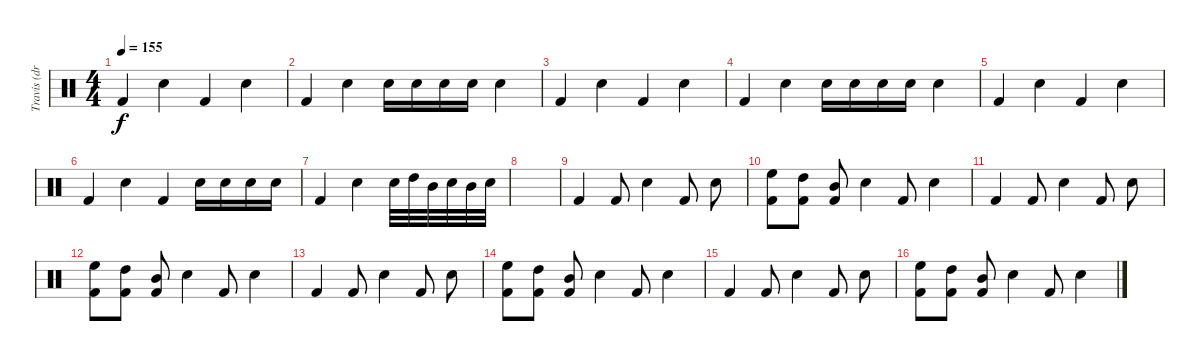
\track ("Travis (drums)" "Travis (dr") {instrument percussion}
\staff {score}
\articulation defaults
\ts (4 4)
\tempo 155
\clef neutral
\ks c "Kick (hit) 2".4{dy f} "Snare (hit) 2".4 "Kick (hit) 2".4 "Snare (hit) 2".4
|
"Kick (hit) 2".4 "Snare (hit) 2".4 "Snare (hit) 2".16 "Snare (hit) 2".16 "Snare (hit) 2".16 "Snare (hit) 2".16 "Snare (hit) 2".4 |
"Kick (hit) 2".4 "Snare (hit) 2".4 "Kick (hit) 2".4 "Snare (hit) 2".4 |
"Kick (hit) 2".4 "Snare (hit) 2".4 "Snare (hit) 2".16 "Snare (hit) 2".16 "Snare (hit) 2".16 "Snare (hit) 2".16 "Snare (hit) 2".4 |
"Kick (hit) 2".4 "Snare (hit) 2".4 "Kick (hit) 2".4 "Snare (hit) 2".4 |
"Kick (hit) 2".4 "Snare (hit) 2".4 "Kick (hit) 2".4 "Snare (hit) 2".16 "Snare (hit) 2".16 "Snare (hit) 2".16 "Snare (hit) 2".16 |
"Kick (hit) 2".4 "Snare (hit) 2".4 "Snare (hit) 2".32 "High Tom (hit)".32 "Mid Tom (hit)".32 "Snare (hit) 2".32 "Mid Tom (hit)".32 "Snare (hit) 2".32 |
|
"Kick (hit) 2".4 "Kick (hit) 2".8 "Snare (hit) 2".4 "Kick (hit) 2".8 "Snare (hit) 2".8 |
("High Floor Tom (hit)" "Kick (hit) 2").8 ("High Tom (hit)" "Kick (hit) 2").8 ("Mid Tom (hit)" "Kick (hit) 2").8 "Snare (hit) 2".4 "Kick (hit) 2".8 "Snare (hit) 2".4 |
"Kick (hit) 2".4 "Kick (hit) 2".8 "Snare (hit) 2".4 "Kick (hit) 2".8 "Snare (hit) 2".8 |
("High Floor Tom (hit)" "Kick (hit) 2").8 ("High Tom (hit)" "Kick (hit) 2").8 ("Mid Tom (hit)" "Kick (hit) 2").8 "Snare (hit) 2".4 "Kick (hit) 2".8 "Snare (hit) 2".4 |
"Kick (hit) 2".4 "Kick (hit) 2".8 "Snare (hit) 2".4 "Kick (hit) 2".8 "Snare (hit) 2".8 |
("High Floor Tom (hit)" "Kick (hit) 2").8 ("High Tom (hit)" "Kick (hit) 2").8 ("Mid Tom (hit)" "Kick (hit) 2").8 "Snare (hit) 2".4 "Kick (hit) 2".8 "Snare (hit) 2".4 |
"Kick (hit) 2".4 "Kick (hit) 2".8 "Snare (hit) 2".4 "Kick (hit) 2".8 "Snare (hit) 2".8 |
("High Floor Tom (hit)" "Kick (hit) 2").8 ("High Tom (hit)" "Kick (hit) 2").8 ("Mid Tom (hit)" "Kick (hit) 2").8 "Snare (hit) 2".4 "Kick (hit) 2".8 "Snare (hit) 2".4
